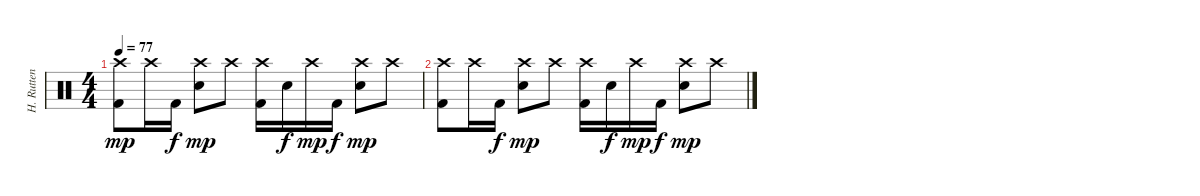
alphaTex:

\track ("H. Rutten" "H. Rutten") {instrument percussion}
\staff {score}
\articulation defaults
\ts (4 4)
\tempo 77
\clef neutral
\ks c
("Kick (hit) 2" "Crash high (hit)").8{dy mp volume 0} "Crash high (hit)".16 "Kick (hit) 2".16{dy f} ("Electric Snare (hit)" "Crash high (hit)").8{dy mp} "Crash high (hit)".8 ("Kick (hit) 2" "Crash high (hit)").16 "Electric Snare (hit)".16{dy f} "Crash high (hit)".16{dy mp} "Kick (hit) 2".16{dy f} ("Electric Snare (hit)" "Crash high (hit)").8{dy mp} "Crash high (hit)".8 |
("Kick (hit) 2" "Crash high (hit)").8{volume 0} "Crash high (hit)".16 "Kick (hit) 2".16{dy f} ("Electric Snare (hit)" "Crash high (hit)").8{dy mp} "Crash high (hit)".8 ("Kick (hit) 2" "Crash high (hit)").16 "Electric Snare (hit)".16{dy f} "Crash high (hit)".16{dy mp} "Kick (hit) 2".16{dy f} ("Electric Snare (hit)" "Crash high (hit)").8{dy mp} "Crash high (hit)".8
